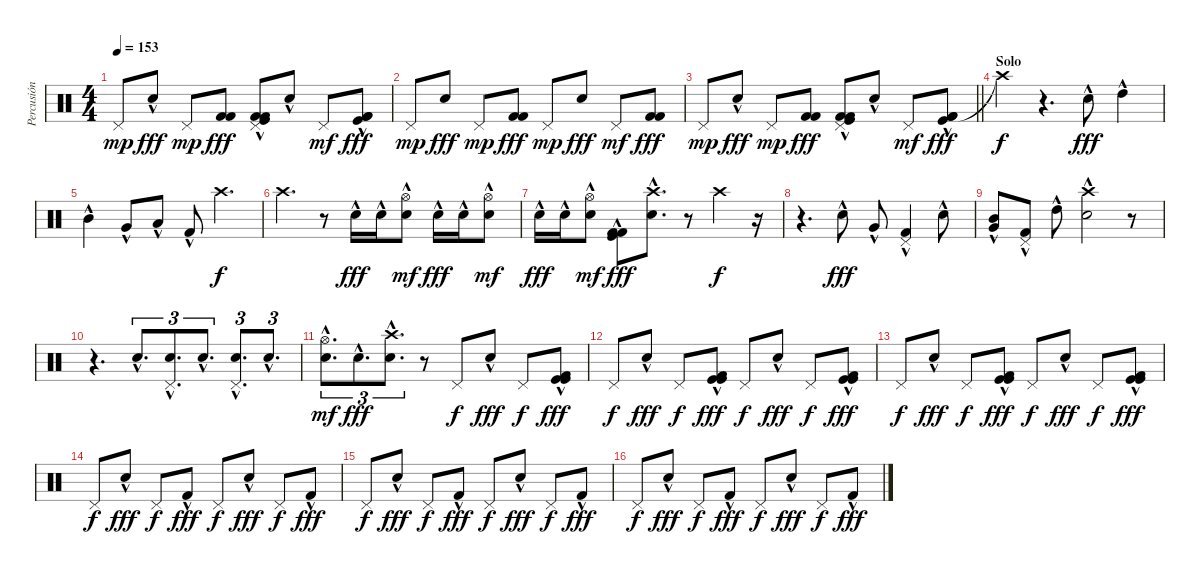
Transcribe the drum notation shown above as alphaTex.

\track ("Percusión (Javi Molina)" "Percusión ") {instrument percussion}
\staff {score}
\articulation defaults
\ts (4 4)
\tempo 153
\clef neutral
\ks c "Pedal Hi-Hat (hit)".8{dy mp} "Electric Snare (hit)"{hac}.8{dy fff} "Pedal Hi-Hat (hit)".8{dy mp}
("Kick (hit) 2" "Kick (hit) 2").8{dy fff} ("Pedal Hi-Hat (hit)" "Kick (hit) 2"{hac} "Kick (hit) 2"{hac} "Kick (hit)"{hac}).8 "Electric Snare (hit)"{hac}.8 "Pedal Hi-Hat (hit)".8{dy mf} ("Kick (hit) 2"{hac} "Kick (hit) 2"{hac} "Kick (hit)"{hac}).8{dy fff} |
"Pedal Hi-Hat (hit)".8{dy mp} "Electric Snare (hit)".8{dy fff} "Pedal Hi-Hat (hit)".8{dy mp} ("Kick (hit) 2" "Kick (hit) 2").8{dy fff} "Pedal Hi-Hat (hit)".8{dy mp} "Electric Snare (hit)".8{dy fff} "Pedal Hi-Hat (hit)".8{dy mf} ("Kick (hit) 2" "Kick (hit) 2").8{dy fff} |
\barLineRight lightlight "Pedal Hi-Hat (hit)".8{dy mp} "Electric Snare (hit)"{hac}.8{dy fff} "Pedal Hi-Hat (hit)".8{dy mp}
("Kick (hit) 2" "Kick (hit) 2").8{dy fff} ("Pedal Hi-Hat (hit)" "Kick (hit) 2"{hac} "Kick (hit) 2"{hac} "Kick (hit)"{hac}).8 "Electric Snare (hit)"{hac}.8 "Pedal Hi-Hat (hit)".8{dy mf} ("Kick (hit) 2"{hac} "Kick (hit) 2"{hac} "Kick (hit)"{hac}).8{dy fff} |
\section ("" "Solo")
"Crash high (hit)"{t}.4{dy f} r.4{d} "Electric Snare (hit)"{hac}.8{dy fff} "High Tom (hit)"{hac}.4 |
"Mid Tom (hit)"{hac}.4 "Very Low Tom (hit)"{hac}.8 "Low Floor Tom (hit)"{hac}.8 "Kick (hit) 2"{hac}.8 "Crash high (hit)".4{d dy f} |
"Crash high (hit)".4{d} r.8 "Electric Snare (hit)"{hac}.16{dy fff} "Electric Snare (hit)"{hac}.16 ("Electric Snare (hit)"{hac} "Hi-Hat (open)").8{dy mf} "Electric Snare (hit)"{hac}.16{dy fff} "Electric Snare (hit)"{hac}.16 ("Electric Snare (hit)"{hac} "Hi-Hat (open)").8{dy mf} |
"Electric Snare (hit)"{hac}.16{dy fff} "Electric Snare (hit)"{hac}.16 ("Electric Snare (hit)"{hac} "Hi-Hat (open)").8{dy mf} ("Kick (hit) 2"{hac} "Kick (hit) 2"{hac} "Kick (hit)").8{dy fff} ("Crash high (hit)" "Electric Snare (hit)"{hac}).8{d} r.8 "Crash high (hit)".4{dy f} r.16 |
r.4{d} "Electric Snare (hit)"{hac}.8{dy fff} "Very Low Tom (hit)"{hac}.8 ("Kick (hit) 2"{hac} "Pedal Hi-Hat (hit)").4 "Electric Snare (hit)"{hac}.8 |
("Mid Tom (hit)"{hac} "Very Low Tom (hit)"{hac}).8 ("Kick (hit) 2"{hac} "Pedal Hi-Hat (hit)").8 "High Tom (hit)"{hac}.8 ("Electric Snare (hit)"{hac} "Crash high (hit)").2 r.8 |
r.4{d} "Electric Snare (hit)"{hac}.8{d tu (3 2)} ("Electric Snare (hit)"{hac} "Pedal Hi-Hat (hit)").8{d tu (3 2)} "Electric Snare (hit)"{hac}.8{d tu (3 2)} ("Electric Snare (hit)"{hac} "Pedal Hi-Hat (hit)").8{d tu (3 2)} "Electric Snare (hit)"{hac}.8{d tu (3 2)} |
("Electric Snare (hit)"{hac} "Hi-Hat (open)").8{d tu (3 2) dy mf} "Electric Snare (hit)"{hac}.8{d tu (3 2) dy fff} ("Electric Snare (hit)"{hac} "Crash high (hit)").8{d tu (3 2)} r.8 "Pedal Hi-Hat (hit)".8{dy f} "Electric Snare (hit)"{hac}.8{dy fff} "Pedal Hi-Hat (hit)".8{dy f} ("Kick (hit) 2"{hac} "Kick (hit)"{hac} "Kick (hit)"{hac}).8{dy fff} |
"Pedal Hi-Hat (hit)".8{dy f} "Electric Snare (hit)"{hac}.8{dy fff} "Pedal Hi-Hat (hit)".8{dy f} ("Kick (hit) 2"{hac} "Kick (hit)"{hac} "Kick (hit)"{hac}).8{dy fff} "Pedal Hi-Hat (hit)".8{dy f} "Electric Snare (hit)"{hac}.8{dy fff} "Pedal Hi-Hat (hit)".8{dy f} ("Kick (hit) 2"{hac} "Kick (hit)"{hac} "Kick (hit)"{hac}).8{dy fff} |
"Pedal Hi-Hat (hit)".8{dy f} "Electric Snare (hit)"{hac}.8{dy fff} "Pedal Hi-Hat (hit)".8{dy f} ("Kick (hit) 2"{hac} "Kick (hit)"{hac} "Kick (hit)"{hac}).8{dy fff} "Pedal Hi-Hat (hit)".8{dy f} "Electric Snare (hit)"{hac}.8{dy fff} "Pedal Hi-Hat (hit)".8{dy f} ("Kick (hit) 2"{hac} "Kick (hit)"{hac} "Kick (hit)"{hac}).8{dy fff} |
"Pedal Hi-Hat (hit)".8{dy f} "Electric Snare (hit)"{hac}.8{dy fff} "Pedal Hi-Hat (hit)".8{dy f} "Kick (hit) 2"{hac}.8{dy fff} "Pedal Hi-Hat (hit)".8{dy f} "Electric Snare (hit)"{hac}.8{dy fff} "Pedal Hi-Hat (hit)".8{dy f} "Kick (hit) 2"{hac}.8{dy fff} |
"Pedal Hi-Hat (hit)".8{dy f} "Electric Snare (hit)"{hac}.8{dy fff} "Pedal Hi-Hat (hit)".8{dy f} "Kick (hit) 2"{hac}.8{dy fff} "Pedal Hi-Hat (hit)".8{dy f} "Electric Snare (hit)"{hac}.8{dy fff} "Pedal Hi-Hat (hit)".8{dy f} "Kick (hit) 2"{hac}.8{dy fff} |
"Pedal Hi-Hat (hit)".8{dy f} "Electric Snare (hit)"{hac}.8{dy fff} "Pedal Hi-Hat (hit)".8{dy f} "Kick (hit) 2"{hac}.8{dy fff} "Pedal Hi-Hat (hit)".8{dy f} "Electric Snare (hit)"{hac}.8{dy fff} "Pedal Hi-Hat (hit)".8{dy f} "Kick (hit) 2"{hac}.8{dy fff}
